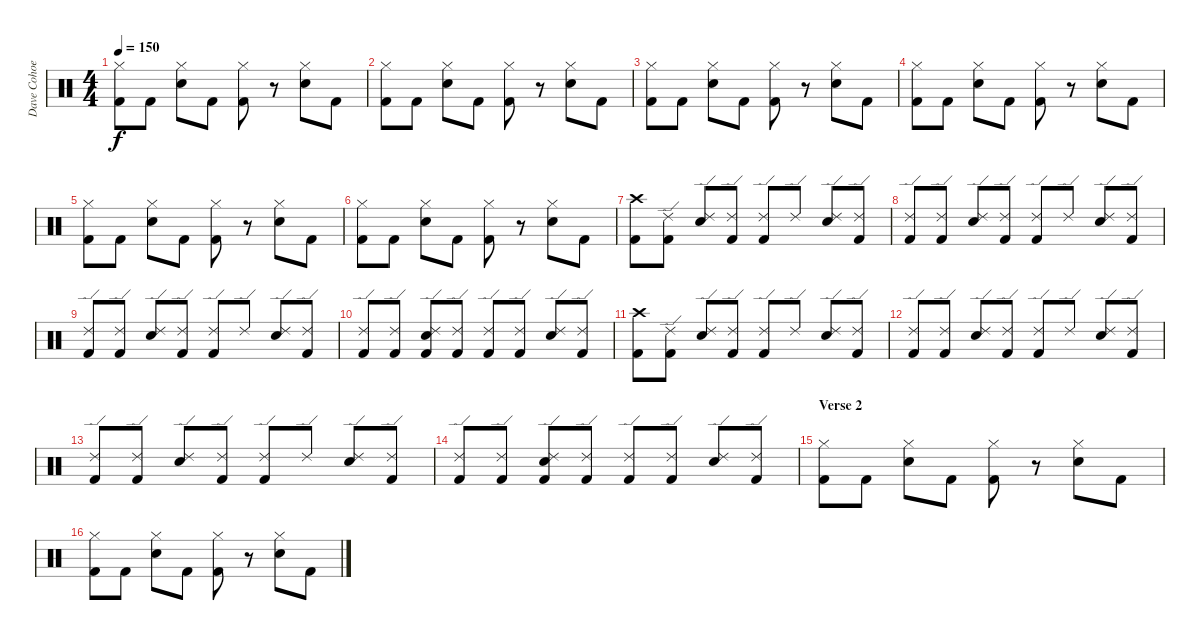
\track ("Dave Cohoe" "Dave Cohoe") {instrument percussion}
\staff {score}
\articulation defaults
\ts (4 4)
\tempo 150
\clef neutral
\ks c
("Hi-Hat (closed)" "Kick (hit) 2").8{dy f} "Kick (hit) 2".8 ("Hi-Hat (closed)" "Snare (hit) 2").8 "Kick (hit) 2".8 ("Hi-Hat (closed)" "Kick (hit) 2").8 r.8 ("Hi-Hat (closed)" "Snare (hit) 2").8 "Kick (hit) 2".8 |
("Hi-Hat (closed)" "Kick (hit) 2").8 "Kick (hit) 2".8 ("Hi-Hat (closed)" "Snare (hit) 2").8 "Kick (hit) 2".8 ("Hi-Hat (closed)" "Kick (hit) 2").8 r.8 ("Hi-Hat (closed)" "Snare (hit) 2").8 "Kick (hit) 2".8 |
("Hi-Hat (closed)" "Kick (hit) 2").8 "Kick (hit) 2".8 ("Hi-Hat (closed)" "Snare (hit) 2").8 "Kick (hit) 2".8 ("Hi-Hat (closed)" "Kick (hit) 2").8 r.8 ("Hi-Hat (closed)" "Snare (hit) 2").8 "Kick (hit) 2".8 |
("Hi-Hat (closed)" "Kick (hit) 2").8 "Kick (hit) 2".8 ("Hi-Hat (closed)" "Snare (hit) 2").8 "Kick (hit) 2".8 ("Hi-Hat (closed)" "Kick (hit) 2").8 r.8 ("Hi-Hat (closed)" "Snare (hit) 2").8 "Kick (hit) 2".8 |
("Hi-Hat (closed)" "Kick (hit) 2").8 "Kick (hit) 2".8 ("Hi-Hat (closed)" "Snare (hit) 2").8 "Kick (hit) 2".8 ("Hi-Hat (closed)" "Kick (hit) 2").8 r.8 ("Hi-Hat (closed)" "Snare (hit) 2").8 "Kick (hit) 2".8 |
("Hi-Hat (closed)" "Kick (hit) 2").8 "Kick (hit) 2".8 ("Hi-Hat (closed)" "Snare (hit) 2").8 "Kick (hit) 2".8 ("Hi-Hat (closed)" "Kick (hit) 2").8 r.8 ("Hi-Hat (closed)" "Snare (hit) 2").8 "Kick (hit) 2".8 |
("Crash high (hit)" "Kick (hit) 2").8 ("Ride (edge) 2" "Kick (hit) 2").8 ("Ride (edge) 2" "Snare (hit) 2").8 ("Ride (edge) 2" "Kick (hit) 2").8 ("Ride (edge) 2" "Kick (hit) 2").8 "Ride (edge) 2".8 ("Ride (edge) 2" "Snare (hit) 2").8 ("Ride (edge) 2" "Kick (hit) 2").8 |
("Ride (edge) 2" "Kick (hit) 2").8 ("Ride (edge) 2" "Kick (hit) 2").8 ("Ride (edge) 2" "Snare (hit) 2").8 ("Ride (edge) 2" "Kick (hit) 2").8 ("Ride (edge) 2" "Kick (hit) 2").8 "Ride (edge) 2".8 ("Ride (edge) 2" "Snare (hit) 2").8 ("Ride (edge) 2" "Kick (hit) 2").8 |
("Ride (edge) 2" "Kick (hit) 2").8 ("Ride (edge) 2" "Kick (hit) 2").8 ("Ride (edge) 2" "Snare (hit) 2").8 ("Ride (edge) 2" "Kick (hit) 2").8 ("Ride (edge) 2" "Kick (hit) 2").8 "Ride (edge) 2".8 ("Ride (edge) 2" "Snare (hit) 2").8 ("Ride (edge) 2" "Kick (hit) 2").8 |
("Ride (edge) 2" "Kick (hit) 2").8 ("Ride (edge) 2" "Kick (hit) 2").8 ("Ride (edge) 2" "Snare (hit) 2" "Kick (hit) 2").8 ("Ride (edge) 2" "Kick (hit) 2").8 ("Ride (edge) 2" "Kick (hit) 2").8 ("Ride (edge) 2" "Kick (hit) 2").8 ("Ride (edge) 2" "Snare (hit) 2").8 ("Ride (edge) 2" "Kick (hit) 2").8 |
("Crash high (hit)" "Kick (hit) 2").8 ("Ride (edge) 2" "Kick (hit) 2").8 ("Ride (edge) 2" "Snare (hit) 2").8 ("Ride (edge) 2" "Kick (hit) 2").8 ("Ride (edge) 2" "Kick (hit) 2").8 "Ride (edge) 2".8 ("Ride (edge) 2" "Snare (hit) 2").8 ("Ride (edge) 2" "Kick (hit) 2").8 |
("Ride (edge) 2" "Kick (hit) 2").8 ("Ride (edge) 2" "Kick (hit) 2").8 ("Ride (edge) 2" "Snare (hit) 2").8 ("Ride (edge) 2" "Kick (hit) 2").8 ("Ride (edge) 2" "Kick (hit) 2").8 "Ride (edge) 2".8 ("Ride (edge) 2" "Snare (hit) 2").8 ("Ride (edge) 2" "Kick (hit) 2").8 |
("Ride (edge) 2" "Kick (hit) 2").8 ("Ride (edge) 2" "Kick (hit) 2").8 ("Ride (edge) 2" "Snare (hit) 2").8 ("Ride (edge) 2" "Kick (hit) 2").8 ("Ride (edge) 2" "Kick (hit) 2").8 "Ride (edge) 2".8 ("Ride (edge) 2" "Snare (hit) 2").8 ("Ride (edge) 2" "Kick (hit) 2").8 |
("Ride (edge) 2" "Kick (hit) 2").8 ("Ride (edge) 2" "Kick (hit) 2").8 ("Ride (edge) 2" "Snare (hit) 2" "Kick (hit) 2").8 ("Ride (edge) 2" "Kick (hit) 2").8 ("Ride (edge) 2" "Kick (hit) 2").8 ("Ride (edge) 2" "Kick (hit) 2").8 ("Ride (edge) 2" "Snare (hit) 2").8 ("Ride (edge) 2" "Kick (hit) 2").8 |
\section ("" "Verse 2")
("Hi-Hat (closed)" "Kick (hit) 2").8 "Kick (hit) 2".8 ("Hi-Hat (closed)" "Snare (hit) 2").8 "Kick (hit) 2".8 ("Hi-Hat (closed)" "Kick (hit) 2").8 r.8 ("Hi-Hat (closed)" "Snare (hit) 2").8 "Kick (hit) 2".8 |
("Hi-Hat (closed)" "Kick (hit) 2").8 "Kick (hit) 2".8 ("Hi-Hat (closed)" "Snare (hit) 2").8 "Kick (hit) 2".8 ("Hi-Hat (closed)" "Kick (hit) 2").8 r.8 ("Hi-Hat (closed)" "Snare (hit) 2").8 "Kick (hit) 2".8
